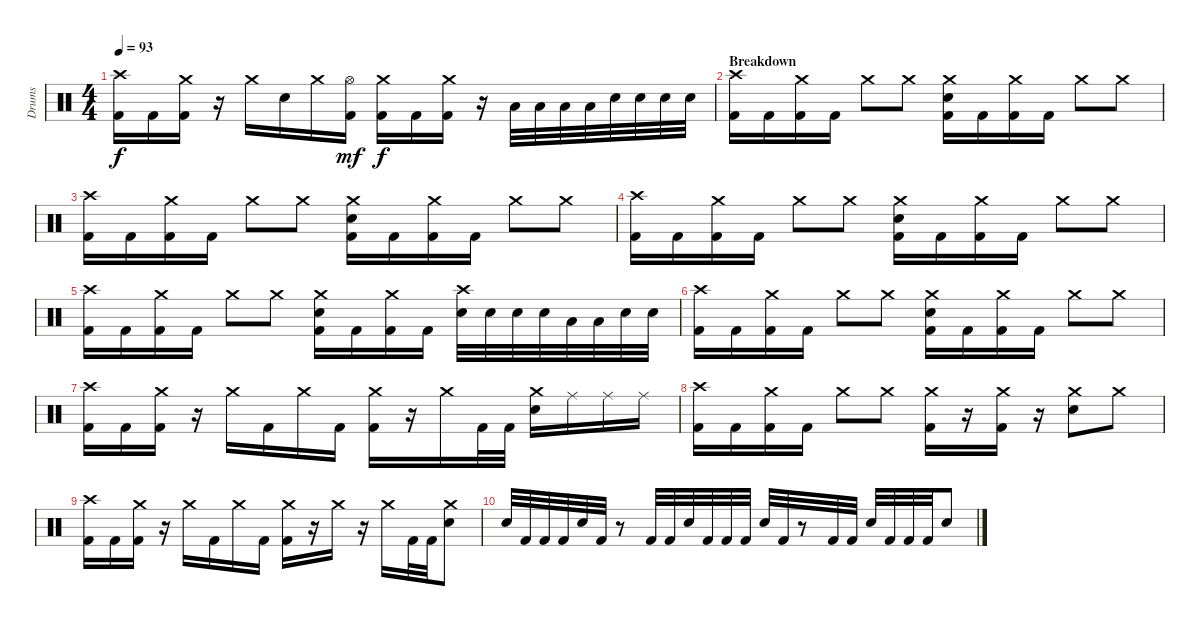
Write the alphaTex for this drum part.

\track ("Drums" "Drums") {instrument percussion}
\staff {score}
\articulation defaults
\ts (4 4)
\tempo 93
\clef neutral
\ks c
("Crash high (hit)" "Kick (hit) 2").16{dy f} "Kick (hit) 2".16 ("Crash medium (hit)" "Kick (hit) 2").16 r.16 "Crash medium (hit)".16 "Electric Snare (hit)".16 "Crash medium (hit)".16 ("Hi-Hat (open)" "Kick (hit) 2").16{dy mf} ("Crash medium (hit)" "Kick (hit) 2").16{dy f} "Kick (hit) 2".16 ("Crash medium (hit)" "Kick (hit) 2").16 r.16 "Low Tom (hit)".32 "Low Tom (hit)".32 "Low Tom (hit)".32 "Low Tom (hit)".32 "Electric Snare (hit)".32 "Electric Snare (hit)".32 "Electric Snare (hit)".32 "Electric Snare (hit)".32 |
\section ("" "Breakdown")
("Crash high (hit)" "Kick (hit) 2").16 "Kick (hit) 2".16 ("Crash medium (hit)" "Kick (hit) 2").16 "Kick (hit) 2".16 "Crash medium (hit)".8 "Crash medium (hit)".8 ("Crash medium (hit)" "Electric Snare (hit)" "Kick (hit) 2").16 "Kick (hit) 2".16 ("Crash medium (hit)" "Kick (hit) 2").16 "Kick (hit) 2".16 "Crash medium (hit)".8 "Crash medium (hit)".8 |
("Crash high (hit)" "Kick (hit) 2").16 "Kick (hit) 2".16 ("Crash medium (hit)" "Kick (hit) 2").16 "Kick (hit) 2".16 "Crash medium (hit)".8 "Crash medium (hit)".8 ("Crash medium (hit)" "Electric Snare (hit)" "Kick (hit) 2").16 "Kick (hit) 2".16 ("Crash medium (hit)" "Kick (hit) 2").16 "Kick (hit) 2".16 "Crash medium (hit)".8 "Crash medium (hit)".8 |
("Crash high (hit)" "Kick (hit) 2").16 "Kick (hit) 2".16 ("Crash medium (hit)" "Kick (hit) 2").16 "Kick (hit) 2".16 "Crash medium (hit)".8 "Crash medium (hit)".8 ("Crash medium (hit)" "Electric Snare (hit)" "Kick (hit) 2").16 "Kick (hit) 2".16 ("Crash medium (hit)" "Kick (hit) 2").16 "Kick (hit) 2".16 "Crash medium (hit)".8 "Crash medium (hit)".8 |
("Crash high (hit)" "Kick (hit) 2").16 "Kick (hit) 2".16 ("Crash medium (hit)" "Kick (hit) 2").16 "Kick (hit) 2".16 "Crash medium (hit)".8 "Crash medium (hit)".8 ("Crash medium (hit)" "Electric Snare (hit)" "Kick (hit) 2").16 "Kick (hit) 2".16 ("Crash medium (hit)" "Kick (hit) 2").16 "Kick (hit) 2".16 ("Crash high (hit)" "Electric Snare (hit)").32 "Electric Snare (hit)".32 "Electric Snare (hit)".32 "Electric Snare (hit)".32 "Low Tom (hit)".32 "Low Tom (hit)".32 "Electric Snare (hit)".32 "Electric Snare (hit)".32 |
("Crash high (hit)" "Kick (hit) 2").16 "Kick (hit) 2".16 ("Crash medium (hit)" "Kick (hit) 2").16 "Kick (hit) 2".16 "Crash medium (hit)".8 "Crash medium (hit)".8 ("Crash medium (hit)" "Electric Snare (hit)" "Kick (hit) 2").16 "Kick (hit) 2".16 ("Crash medium (hit)" "Kick (hit) 2").16 "Kick (hit) 2".16 "Crash medium (hit)".8 "Crash medium (hit)".8 |
("Crash high (hit)" "Kick (hit) 2").16 "Kick (hit) 2".16 ("Crash medium (hit)" "Kick (hit) 2").16 r.16 "Crash medium (hit)".16 "Kick (hit) 2".16 "Crash medium (hit)".16 "Kick (hit) 2".16 ("Crash medium (hit)" "Kick (hit) 2").16 r.16 "Crash medium (hit)".16 "Kick (hit) 2".32 "Kick (hit) 2".32 ("Crash medium (hit)" "Electric Snare (hit)").16 "Ride (middle)".16 "Ride (middle)".16 "Ride (middle)".16 |
("Crash high (hit)" "Kick (hit) 2").16 "Kick (hit) 2".16 ("Crash medium (hit)" "Kick (hit) 2").16 "Kick (hit) 2".16 "Crash medium (hit)".8 "Crash medium (hit)".8 ("Crash medium (hit)" "Kick (hit) 2").16 r.16 ("Crash medium (hit)" "Kick (hit) 2").16 r.16 ("Crash medium (hit)" "Electric Snare (hit)").8 "Crash medium (hit)".8 |
("Crash high (hit)" "Kick (hit) 2").16 "Kick (hit) 2".16 ("Crash medium (hit)" "Kick (hit) 2").16 r.16 "Crash medium (hit)".16 "Kick (hit) 2".16 "Crash medium (hit)".16 "Kick (hit) 2".16 ("Crash medium (hit)" "Kick (hit) 2").16 r.16 "Crash medium (hit)".16 r.16 "Crash medium (hit)".16 "Kick (hit) 2".32 "Kick (hit) 2".32 ("Crash medium (hit)" "Electric Snare (hit)").8 |
"Electric Snare (hit)".32 "Kick (hit) 2".32 "Kick (hit) 2".32 "Kick (hit) 2".32 "Electric Snare (hit)".32 "Kick (hit) 2".32 r.8 "Kick (hit) 2".32 "Kick (hit) 2".32 "Electric Snare (hit)".32 "Kick (hit) 2".32 "Kick (hit) 2".32 "Kick (hit) 2".32 "Electric Snare (hit)".32 "Kick (hit) 2".32 r.8 "Kick (hit) 2".32 "Kick (hit) 2".32 "Electric Snare (hit)".32 "Kick (hit) 2".32 "Kick (hit) 2".32 "Kick (hit) 2".32 "Electric Snare (hit)".8
